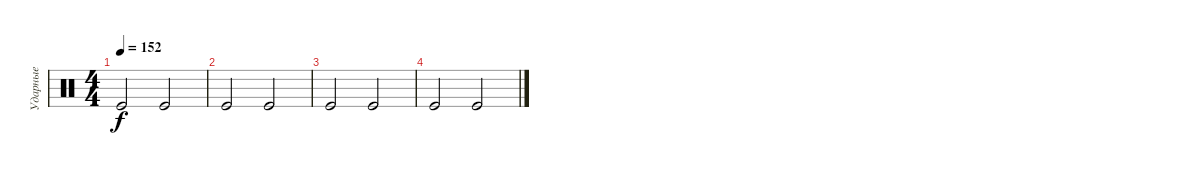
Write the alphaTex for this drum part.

\track ("Ударные" "Ударные") {instrument percussion}
\staff {score}
\articulation defaults
\ts (4 4)
\tempo 152
\clef neutral
\ks c "Kick (hit)".2{dy f} "Kick (hit)".2
|
"Kick (hit)".2 "Kick (hit)".2 |
"Kick (hit)".2 "Kick (hit)".2 |
"Kick (hit)".2 "Kick (hit)".2
